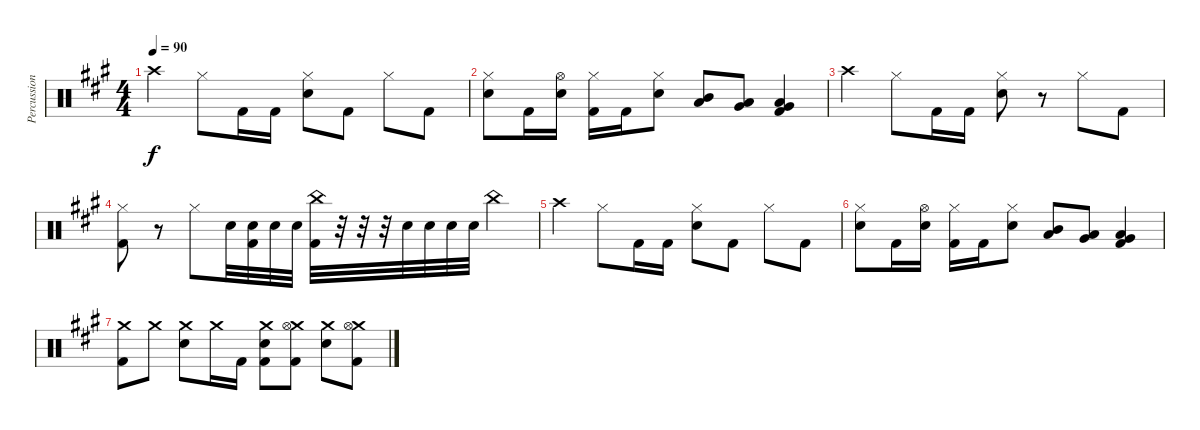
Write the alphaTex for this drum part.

\track ("Percussion" "Percussion") {instrument percussion}
\staff {score}
\articulation defaults
\ts (4 4)
\tempo 90
\clef neutral
\ks a "Crash high (hit)".4{dy f} "Hi-Hat (closed)".8 "Kick (hit) 2".16 "Kick (hit) 2".16
("Hi-Hat (closed)" "Electric Snare (hit)").8 "Kick (hit) 2".8 "Hi-Hat (closed)".8 "Kick (hit) 2".8 |
("Hi-Hat (closed)" "Electric Snare (hit)").8 "Kick (hit) 2".16 ("Hi-Hat (open)" "Electric Snare (hit)").16 ("Hi-Hat (closed)" "Kick (hit) 2").16 "Kick (hit) 2".16 ("Hi-Hat (closed)" "Electric Snare (hit)").8 ("Mid Tom (hit)" "Low Tom (hit)").8 ("Low Tom (hit)" "Very Low Tom (hit)").8 ("Very Low Tom (hit)" "Low Floor Tom (hit)" "Kick (hit) 2").4 |
"Crash high (hit)".4 "Hi-Hat (closed)".8 "Kick (hit) 2".16 "Kick (hit) 2".16 ("Hi-Hat (closed)" "Electric Snare (hit)").8 r.8 "Hi-Hat (closed)".8 "Kick (hit) 2".8 |
("Hi-Hat (closed)" "Kick (hit) 2").8 r.8 "Hi-Hat (closed)".8 "Electric Snare (hit)".32 ("Electric Snare (hit)" "Kick (hit) 2").32 "Electric Snare (hit)".32 "Electric Snare (hit)".32 ("China (hit)" "Kick (hit) 2").32 r.32 r.32 r.32 "Electric Snare (hit)".32 "Electric Snare (hit)".32 "Electric Snare (hit)".32 "Electric Snare (hit)".32 "China (hit)".4 |
"Crash high (hit)".4 "Hi-Hat (closed)".8 "Kick (hit) 2".16 "Kick (hit) 2".16 ("Hi-Hat (closed)" "Electric Snare (hit)").8 "Kick (hit) 2".8 "Hi-Hat (closed)".8 "Kick (hit) 2".8 |
("Hi-Hat (closed)" "Electric Snare (hit)").8 "Kick (hit) 2".16 ("Hi-Hat (open)" "Electric Snare (hit)").16 ("Hi-Hat (closed)" "Kick (hit) 2").16 "Kick (hit) 2".16 ("Hi-Hat (closed)" "Electric Snare (hit)").8 ("Mid Tom (hit)" "Low Tom (hit)").8 ("Low Tom (hit)" "Very Low Tom (hit)").8 ("Very Low Tom (hit)" "Low Floor Tom (hit)" "Kick (hit) 2").4 |
("Crash medium (hit)" "Kick (hit) 2").8 "Crash medium (hit)".8 ("Crash medium (hit)" "Electric Snare (hit)").8 "Crash medium (hit)".16 "Kick (hit) 2".16 ("Crash medium (hit)" "Electric Snare (hit)" "Kick (hit) 2").8 ("Crash medium (hit)" "Hi-Hat (open)" "Kick (hit) 2").8 ("Crash medium (hit)" "Electric Snare (hit)").8 ("Crash medium (hit)" "Hi-Hat (open)" "Kick (hit) 2").8
